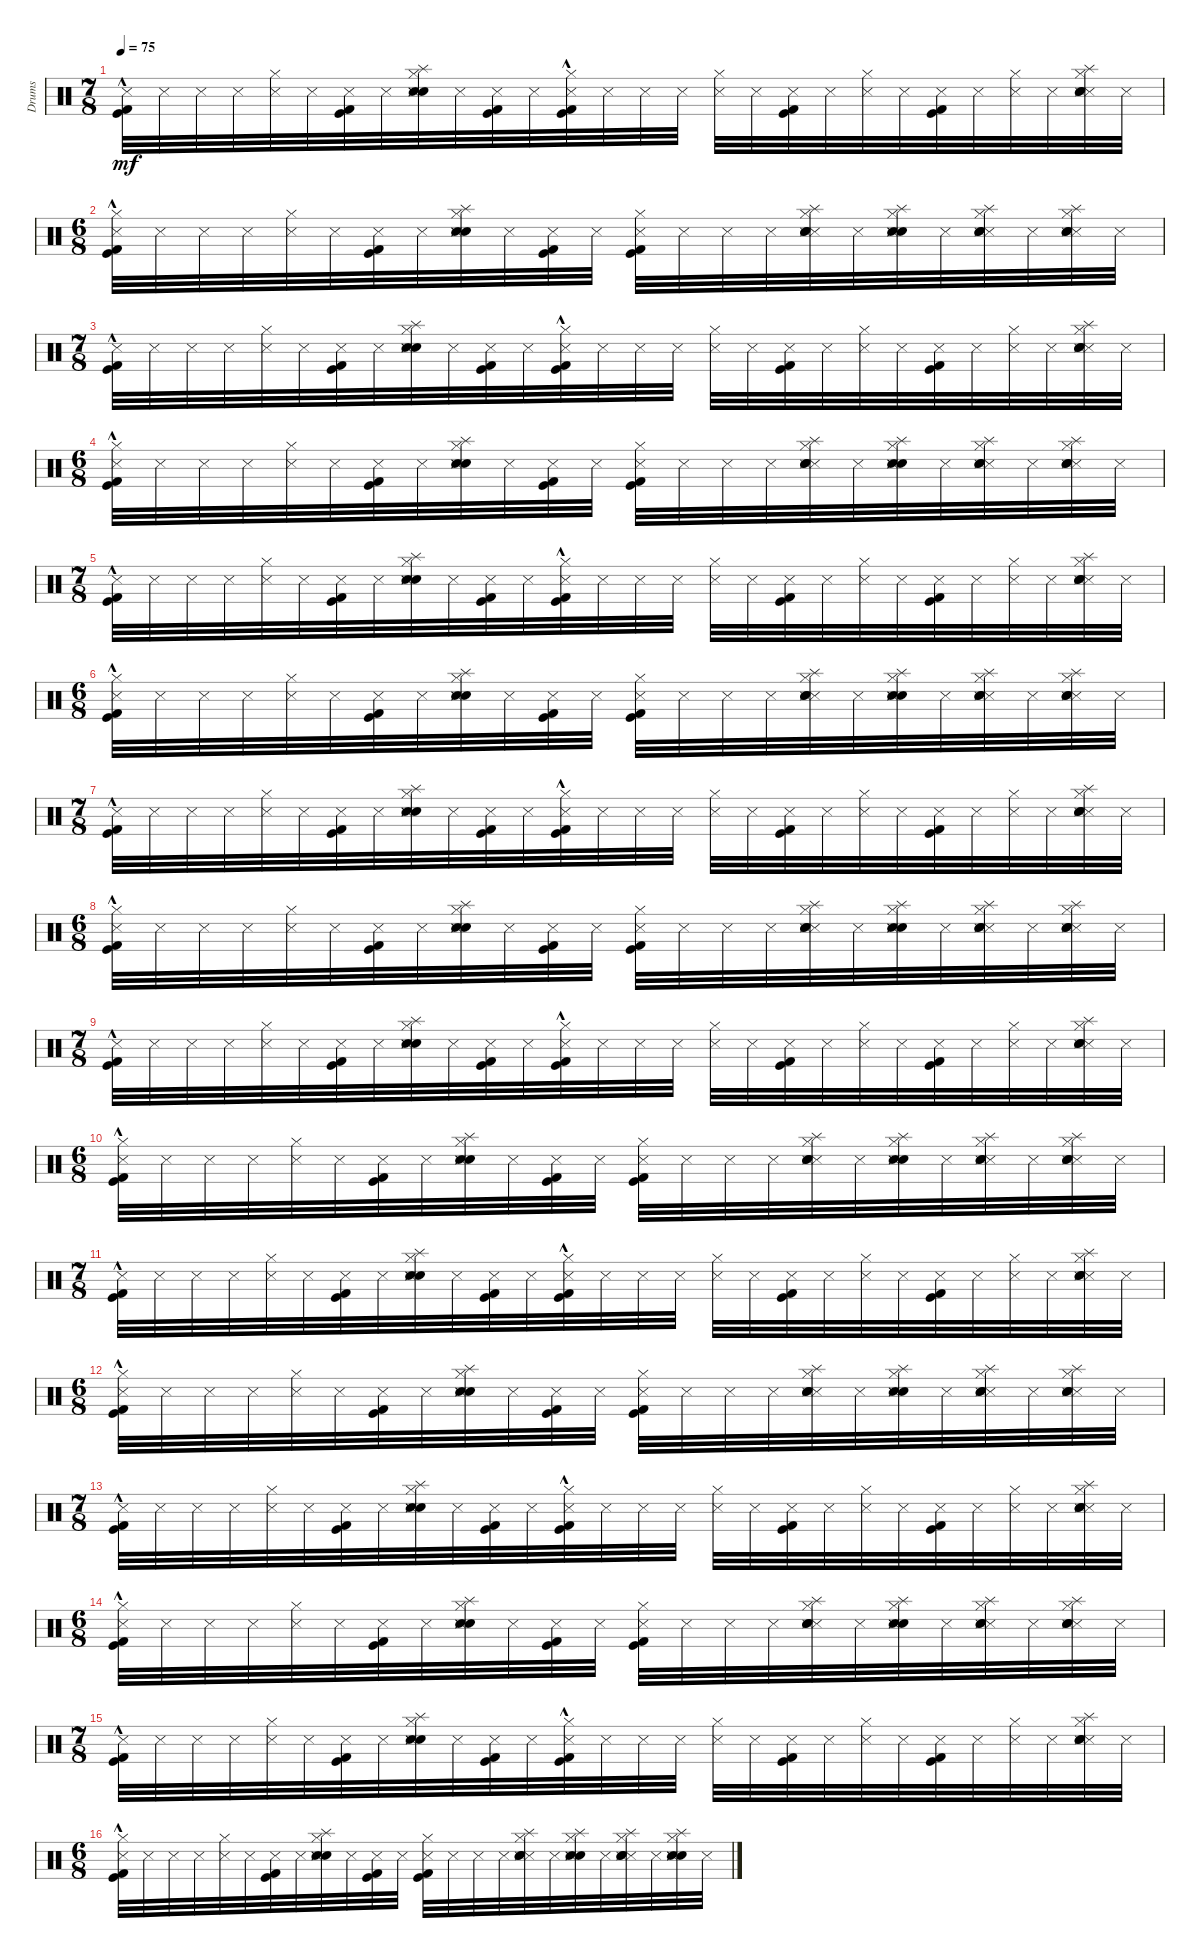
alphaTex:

\track ("Drums" "Drums") {instrument percussion}
\staff {score}
\articulation defaults
\ts (7 8)
\tempo 75
\clef neutral
\ks c
("Kick (hit)"{hac} "Kick (hit) 2"{hac} "Metronome (hit)").32{dy mf} "Metronome (hit)".32 "Metronome (hit)".32 "Metronome (hit)".32 ("Hi-Hat (closed)" "Metronome (hit)").32 "Metronome (hit)".32 ("Kick (hit)" "Kick (hit) 2" "Metronome (hit)").32 "Metronome (hit)".32 ("Hi-Hat (closed)" "Electric Snare (hit)" "Splash (hit)" "Metronome (hit)" "Snare (hit) 2" "Metronome (hit)").32 "Metronome (hit)".32 ("Kick (hit)" "Kick (hit) 2" "Metronome (hit)").32 "Metronome (hit)".32 ("Hi-Hat (closed)" "Kick (hit) 2"{hac} "Kick (hit)"{hac} "Metronome (hit)").32 "Metronome (hit)".32 "Metronome (hit)".32 "Metronome (hit)".32 ("Hi-Hat (closed)" "Metronome (hit)").32 "Metronome (hit)".32 ("Kick (hit)" "Kick (hit) 2" "Metronome (hit)").32 "Metronome (hit)".32 ("Hi-Hat (closed)" "Metronome (hit)").32 "Metronome (hit)".32 ("Kick (hit)" "Kick (hit) 2" "Metronome (hit)").32 "Metronome (hit)".32 ("Hi-Hat (closed)" "Metronome (hit)").32 "Metronome (hit)".32 ("Splash (hit)" "Hi-Hat (closed)" "Metronome (hit)" "Snare (hit) 2" "Electric Snare (hit)" "Metronome (hit)").32 "Metronome (hit)".32 |
\ts (6 8)
("Hi-Hat (closed)" "Kick (hit)"{hac} "Kick (hit) 2"{hac} "Metronome (hit)").32 "Metronome (hit)".32 "Metronome (hit)".32 "Metronome (hit)".32 ("Hi-Hat (closed)" "Metronome (hit)").32 "Metronome (hit)".32 ("Kick (hit)" "Kick (hit) 2" "Metronome (hit)").32 "Metronome (hit)".32 ("Hi-Hat (closed)" "Splash (hit)" "Snare (hit) 2" "Metronome (hit)" "Electric Snare (hit)" "Metronome (hit)").32 "Metronome (hit)".32 ("Kick (hit)" "Kick (hit) 2" "Metronome (hit)").32 "Metronome (hit)".32 ("Hi-Hat (closed)" "Kick (hit)" "Kick (hit) 2" "Metronome (hit)").32 "Metronome (hit)".32 "Metronome (hit)".32 "Metronome (hit)".32 ("Splash (hit)" "Metronome (hit)" "Electric Snare (hit)" "Hi-Hat (closed)" "Snare (hit) 2" "Metronome (hit)").32 "Metronome (hit)".32 ("Splash (hit)" "Electric Snare (hit)" "Snare (hit) 2" "Metronome (hit)" "Hi-Hat (closed)" "Metronome (hit)").32 "Metronome (hit)".32 ("Splash (hit)" "Metronome (hit)" "Snare (hit) 2" "Electric Snare (hit)" "Hi-Hat (closed)" "Metronome (hit)").32 "Metronome (hit)".32 ("Splash (hit)" "Metronome (hit)" "Snare (hit) 2" "Electric Snare (hit)" "Hi-Hat (closed)" "Metronome (hit)").32 "Metronome (hit)".32 |
\ts (7 8)
("Kick (hit)"{hac} "Kick (hit) 2"{hac} "Metronome (hit)").32 "Metronome (hit)".32 "Metronome (hit)".32 "Metronome (hit)".32 ("Hi-Hat (closed)" "Metronome (hit)").32 "Metronome (hit)".32 ("Kick (hit)" "Kick (hit) 2" "Metronome (hit)").32 "Metronome (hit)".32 ("Hi-Hat (closed)" "Electric Snare (hit)" "Splash (hit)" "Metronome (hit)" "Snare (hit) 2" "Metronome (hit)").32 "Metronome (hit)".32 ("Kick (hit)" "Kick (hit) 2" "Metronome (hit)").32 "Metronome (hit)".32 ("Hi-Hat (closed)" "Kick (hit) 2"{hac} "Kick (hit)"{hac} "Metronome (hit)").32 "Metronome (hit)".32 "Metronome (hit)".32 "Metronome (hit)".32 ("Hi-Hat (closed)" "Metronome (hit)").32 "Metronome (hit)".32 ("Kick (hit)" "Kick (hit) 2" "Metronome (hit)").32 "Metronome (hit)".32 ("Hi-Hat (closed)" "Metronome (hit)").32 "Metronome (hit)".32 ("Kick (hit)" "Kick (hit) 2" "Metronome (hit)").32 "Metronome (hit)".32 ("Hi-Hat (closed)" "Metronome (hit)").32 "Metronome (hit)".32 ("Splash (hit)" "Hi-Hat (closed)" "Metronome (hit)" "Snare (hit) 2" "Electric Snare (hit)" "Metronome (hit)").32 "Metronome (hit)".32 |
\ts (6 8)
("Hi-Hat (closed)" "Kick (hit)"{hac} "Kick (hit) 2"{hac} "Metronome (hit)").32 "Metronome (hit)".32 "Metronome (hit)".32 "Metronome (hit)".32 ("Hi-Hat (closed)" "Metronome (hit)").32 "Metronome (hit)".32 ("Kick (hit)" "Kick (hit) 2" "Metronome (hit)").32 "Metronome (hit)".32 ("Hi-Hat (closed)" "Splash (hit)" "Snare (hit) 2" "Metronome (hit)" "Electric Snare (hit)" "Metronome (hit)").32 "Metronome (hit)".32 ("Kick (hit)" "Kick (hit) 2" "Metronome (hit)").32 "Metronome (hit)".32 ("Hi-Hat (closed)" "Kick (hit)" "Kick (hit) 2" "Metronome (hit)").32 "Metronome (hit)".32 "Metronome (hit)".32 "Metronome (hit)".32 ("Splash (hit)" "Metronome (hit)" "Electric Snare (hit)" "Hi-Hat (closed)" "Snare (hit) 2" "Metronome (hit)").32 "Metronome (hit)".32 ("Splash (hit)" "Electric Snare (hit)" "Snare (hit) 2" "Metronome (hit)" "Hi-Hat (closed)" "Metronome (hit)").32 "Metronome (hit)".32 ("Splash (hit)" "Metronome (hit)" "Snare (hit) 2" "Electric Snare (hit)" "Hi-Hat (closed)" "Metronome (hit)").32 "Metronome (hit)".32 ("Splash (hit)" "Metronome (hit)" "Snare (hit) 2" "Electric Snare (hit)" "Hi-Hat (closed)" "Metronome (hit)").32 "Metronome (hit)".32 |
\ts (7 8)
("Kick (hit)"{hac} "Kick (hit) 2"{hac} "Metronome (hit)").32 "Metronome (hit)".32 "Metronome (hit)".32 "Metronome (hit)".32 ("Hi-Hat (closed)" "Metronome (hit)").32 "Metronome (hit)".32 ("Kick (hit)" "Kick (hit) 2" "Metronome (hit)").32 "Metronome (hit)".32 ("Hi-Hat (closed)" "Electric Snare (hit)" "Splash (hit)" "Metronome (hit)" "Snare (hit) 2" "Metronome (hit)").32 "Metronome (hit)".32 ("Kick (hit)" "Kick (hit) 2" "Metronome (hit)").32 "Metronome (hit)".32 ("Hi-Hat (closed)" "Kick (hit) 2"{hac} "Kick (hit)"{hac} "Metronome (hit)").32 "Metronome (hit)".32 "Metronome (hit)".32 "Metronome (hit)".32 ("Hi-Hat (closed)" "Metronome (hit)").32 "Metronome (hit)".32 ("Kick (hit)" "Kick (hit) 2" "Metronome (hit)").32 "Metronome (hit)".32 ("Hi-Hat (closed)" "Metronome (hit)").32 "Metronome (hit)".32 ("Kick (hit)" "Kick (hit) 2" "Metronome (hit)").32 "Metronome (hit)".32 ("Hi-Hat (closed)" "Metronome (hit)").32 "Metronome (hit)".32 ("Splash (hit)" "Hi-Hat (closed)" "Metronome (hit)" "Snare (hit) 2" "Electric Snare (hit)" "Metronome (hit)").32 "Metronome (hit)".32 |
\ts (6 8)
("Hi-Hat (closed)" "Kick (hit)"{hac} "Kick (hit) 2"{hac} "Metronome (hit)").32 "Metronome (hit)".32 "Metronome (hit)".32 "Metronome (hit)".32 ("Hi-Hat (closed)" "Metronome (hit)").32 "Metronome (hit)".32 ("Kick (hit)" "Kick (hit) 2" "Metronome (hit)").32 "Metronome (hit)".32 ("Hi-Hat (closed)" "Splash (hit)" "Snare (hit) 2" "Metronome (hit)" "Electric Snare (hit)" "Metronome (hit)").32 "Metronome (hit)".32 ("Kick (hit)" "Kick (hit) 2" "Metronome (hit)").32 "Metronome (hit)".32 ("Hi-Hat (closed)" "Kick (hit)" "Kick (hit) 2" "Metronome (hit)").32 "Metronome (hit)".32 "Metronome (hit)".32 "Metronome (hit)".32 ("Splash (hit)" "Metronome (hit)" "Electric Snare (hit)" "Hi-Hat (closed)" "Snare (hit) 2" "Metronome (hit)").32 "Metronome (hit)".32 ("Splash (hit)" "Electric Snare (hit)" "Snare (hit) 2" "Metronome (hit)" "Hi-Hat (closed)" "Metronome (hit)").32 "Metronome (hit)".32 ("Splash (hit)" "Metronome (hit)" "Snare (hit) 2" "Electric Snare (hit)" "Hi-Hat (closed)" "Metronome (hit)").32 "Metronome (hit)".32 ("Splash (hit)" "Metronome (hit)" "Snare (hit) 2" "Electric Snare (hit)" "Hi-Hat (closed)" "Metronome (hit)").32 "Metronome (hit)".32 |
\ts (7 8)
("Kick (hit)"{hac} "Kick (hit) 2"{hac} "Metronome (hit)").32 "Metronome (hit)".32 "Metronome (hit)".32 "Metronome (hit)".32 ("Hi-Hat (closed)" "Metronome (hit)").32 "Metronome (hit)".32 ("Kick (hit)" "Kick (hit) 2" "Metronome (hit)").32 "Metronome (hit)".32 ("Hi-Hat (closed)" "Electric Snare (hit)" "Splash (hit)" "Metronome (hit)" "Snare (hit) 2" "Metronome (hit)").32 "Metronome (hit)".32 ("Kick (hit)" "Kick (hit) 2" "Metronome (hit)").32 "Metronome (hit)".32 ("Hi-Hat (closed)" "Kick (hit) 2"{hac} "Kick (hit)"{hac} "Metronome (hit)").32 "Metronome (hit)".32 "Metronome (hit)".32 "Metronome (hit)".32 ("Hi-Hat (closed)" "Metronome (hit)").32 "Metronome (hit)".32 ("Kick (hit)" "Kick (hit) 2" "Metronome (hit)").32 "Metronome (hit)".32 ("Hi-Hat (closed)" "Metronome (hit)").32 "Metronome (hit)".32 ("Kick (hit)" "Kick (hit) 2" "Metronome (hit)").32 "Metronome (hit)".32 ("Hi-Hat (closed)" "Metronome (hit)").32 "Metronome (hit)".32 ("Splash (hit)" "Hi-Hat (closed)" "Metronome (hit)" "Snare (hit) 2" "Electric Snare (hit)" "Metronome (hit)").32 "Metronome (hit)".32 |
\ts (6 8)
("Hi-Hat (closed)" "Kick (hit)"{hac} "Kick (hit) 2"{hac} "Metronome (hit)").32 "Metronome (hit)".32 "Metronome (hit)".32 "Metronome (hit)".32 ("Hi-Hat (closed)" "Metronome (hit)").32 "Metronome (hit)".32 ("Kick (hit)" "Kick (hit) 2" "Metronome (hit)").32 "Metronome (hit)".32 ("Hi-Hat (closed)" "Splash (hit)" "Snare (hit) 2" "Metronome (hit)" "Electric Snare (hit)" "Metronome (hit)").32 "Metronome (hit)".32 ("Kick (hit)" "Kick (hit) 2" "Metronome (hit)").32 "Metronome (hit)".32 ("Hi-Hat (closed)" "Kick (hit)" "Kick (hit) 2" "Metronome (hit)").32 "Metronome (hit)".32 "Metronome (hit)".32 "Metronome (hit)".32 ("Splash (hit)" "Metronome (hit)" "Electric Snare (hit)" "Hi-Hat (closed)" "Snare (hit) 2" "Metronome (hit)").32 "Metronome (hit)".32 ("Splash (hit)" "Electric Snare (hit)" "Snare (hit) 2" "Metronome (hit)" "Hi-Hat (closed)" "Metronome (hit)").32 "Metronome (hit)".32 ("Splash (hit)" "Metronome (hit)" "Snare (hit) 2" "Electric Snare (hit)" "Hi-Hat (closed)" "Metronome (hit)").32 "Metronome (hit)".32 ("Splash (hit)" "Metronome (hit)" "Snare (hit) 2" "Electric Snare (hit)" "Hi-Hat (closed)" "Metronome (hit)").32 "Metronome (hit)".32 |
\ts (7 8)
("Kick (hit)"{hac} "Kick (hit) 2"{hac} "Metronome (hit)").32 "Metronome (hit)".32 "Metronome (hit)".32 "Metronome (hit)".32 ("Hi-Hat (closed)" "Metronome (hit)").32 "Metronome (hit)".32 ("Kick (hit)" "Kick (hit) 2" "Metronome (hit)").32 "Metronome (hit)".32 ("Hi-Hat (closed)" "Electric Snare (hit)" "Splash (hit)" "Metronome (hit)" "Snare (hit) 2" "Metronome (hit)").32 "Metronome (hit)".32 ("Kick (hit)" "Kick (hit) 2" "Metronome (hit)").32 "Metronome (hit)".32 ("Hi-Hat (closed)" "Kick (hit) 2"{hac} "Kick (hit)"{hac} "Metronome (hit)").32 "Metronome (hit)".32 "Metronome (hit)".32 "Metronome (hit)".32 ("Hi-Hat (closed)" "Metronome (hit)").32 "Metronome (hit)".32 ("Kick (hit)" "Kick (hit) 2" "Metronome (hit)").32 "Metronome (hit)".32 ("Hi-Hat (closed)" "Metronome (hit)").32 "Metronome (hit)".32 ("Kick (hit)" "Kick (hit) 2" "Metronome (hit)").32 "Metronome (hit)".32 ("Hi-Hat (closed)" "Metronome (hit)").32 "Metronome (hit)".32 ("Splash (hit)" "Hi-Hat (closed)" "Metronome (hit)" "Snare (hit) 2" "Electric Snare (hit)" "Metronome (hit)").32 "Metronome (hit)".32 |
\ts (6 8)
("Hi-Hat (closed)" "Kick (hit)"{hac} "Kick (hit) 2"{hac} "Metronome (hit)").32 "Metronome (hit)".32 "Metronome (hit)".32 "Metronome (hit)".32 ("Hi-Hat (closed)" "Metronome (hit)").32 "Metronome (hit)".32 ("Kick (hit)" "Kick (hit) 2" "Metronome (hit)").32 "Metronome (hit)".32 ("Hi-Hat (closed)" "Splash (hit)" "Snare (hit) 2" "Metronome (hit)" "Electric Snare (hit)" "Metronome (hit)").32 "Metronome (hit)".32 ("Kick (hit)" "Kick (hit) 2" "Metronome (hit)").32 "Metronome (hit)".32 ("Hi-Hat (closed)" "Kick (hit)" "Kick (hit) 2" "Metronome (hit)").32 "Metronome (hit)".32 "Metronome (hit)".32 "Metronome (hit)".32 ("Splash (hit)" "Metronome (hit)" "Electric Snare (hit)" "Hi-Hat (closed)" "Snare (hit) 2" "Metronome (hit)").32 "Metronome (hit)".32 ("Splash (hit)" "Electric Snare (hit)" "Snare (hit) 2" "Metronome (hit)" "Hi-Hat (closed)" "Metronome (hit)").32 "Metronome (hit)".32 ("Splash (hit)" "Metronome (hit)" "Snare (hit) 2" "Electric Snare (hit)" "Hi-Hat (closed)" "Metronome (hit)").32 "Metronome (hit)".32 ("Splash (hit)" "Metronome (hit)" "Snare (hit) 2" "Electric Snare (hit)" "Hi-Hat (closed)" "Metronome (hit)").32 "Metronome (hit)".32 |
\ts (7 8)
("Kick (hit)"{hac} "Kick (hit) 2"{hac} "Metronome (hit)").32 "Metronome (hit)".32 "Metronome (hit)".32 "Metronome (hit)".32 ("Hi-Hat (closed)" "Metronome (hit)").32 "Metronome (hit)".32 ("Kick (hit)" "Kick (hit) 2" "Metronome (hit)").32 "Metronome (hit)".32 ("Hi-Hat (closed)" "Electric Snare (hit)" "Splash (hit)" "Metronome (hit)" "Snare (hit) 2" "Metronome (hit)").32 "Metronome (hit)".32 ("Kick (hit)" "Kick (hit) 2" "Metronome (hit)").32 "Metronome (hit)".32 ("Hi-Hat (closed)" "Kick (hit) 2"{hac} "Kick (hit)"{hac} "Metronome (hit)").32 "Metronome (hit)".32 "Metronome (hit)".32 "Metronome (hit)".32 ("Hi-Hat (closed)" "Metronome (hit)").32 "Metronome (hit)".32 ("Kick (hit)" "Kick (hit) 2" "Metronome (hit)").32 "Metronome (hit)".32 ("Hi-Hat (closed)" "Metronome (hit)").32 "Metronome (hit)".32 ("Kick (hit)" "Kick (hit) 2" "Metronome (hit)").32 "Metronome (hit)".32 ("Hi-Hat (closed)" "Metronome (hit)").32 "Metronome (hit)".32 ("Splash (hit)" "Hi-Hat (closed)" "Metronome (hit)" "Snare (hit) 2" "Electric Snare (hit)" "Metronome (hit)").32 "Metronome (hit)".32 |
\ts (6 8)
("Hi-Hat (closed)" "Kick (hit)"{hac} "Kick (hit) 2"{hac} "Metronome (hit)").32 "Metronome (hit)".32 "Metronome (hit)".32 "Metronome (hit)".32 ("Hi-Hat (closed)" "Metronome (hit)").32 "Metronome (hit)".32 ("Kick (hit)" "Kick (hit) 2" "Metronome (hit)").32 "Metronome (hit)".32 ("Hi-Hat (closed)" "Splash (hit)" "Snare (hit) 2" "Metronome (hit)" "Electric Snare (hit)" "Metronome (hit)").32 "Metronome (hit)".32 ("Kick (hit)" "Kick (hit) 2" "Metronome (hit)").32 "Metronome (hit)".32 ("Hi-Hat (closed)" "Kick (hit)" "Kick (hit) 2" "Metronome (hit)").32 "Metronome (hit)".32 "Metronome (hit)".32 "Metronome (hit)".32 ("Splash (hit)" "Metronome (hit)" "Electric Snare (hit)" "Hi-Hat (closed)" "Snare (hit) 2" "Metronome (hit)").32 "Metronome (hit)".32 ("Splash (hit)" "Electric Snare (hit)" "Snare (hit) 2" "Metronome (hit)" "Hi-Hat (closed)" "Metronome (hit)").32 "Metronome (hit)".32 ("Splash (hit)" "Metronome (hit)" "Snare (hit) 2" "Electric Snare (hit)" "Hi-Hat (closed)" "Metronome (hit)").32 "Metronome (hit)".32 ("Splash (hit)" "Metronome (hit)" "Snare (hit) 2" "Electric Snare (hit)" "Hi-Hat (closed)" "Metronome (hit)").32 "Metronome (hit)".32 |
\ts (7 8)
("Kick (hit)"{hac} "Kick (hit) 2"{hac} "Metronome (hit)").32 "Metronome (hit)".32 "Metronome (hit)".32 "Metronome (hit)".32 ("Hi-Hat (closed)" "Metronome (hit)").32 "Metronome (hit)".32 ("Kick (hit)" "Kick (hit) 2" "Metronome (hit)").32 "Metronome (hit)".32 ("Hi-Hat (closed)" "Electric Snare (hit)" "Splash (hit)" "Metronome (hit)" "Snare (hit) 2" "Metronome (hit)").32 "Metronome (hit)".32 ("Kick (hit)" "Kick (hit) 2" "Metronome (hit)").32 "Metronome (hit)".32 ("Hi-Hat (closed)" "Kick (hit) 2"{hac} "Kick (hit)"{hac} "Metronome (hit)").32 "Metronome (hit)".32 "Metronome (hit)".32 "Metronome (hit)".32 ("Hi-Hat (closed)" "Metronome (hit)").32 "Metronome (hit)".32 ("Kick (hit)" "Kick (hit) 2" "Metronome (hit)").32 "Metronome (hit)".32 ("Hi-Hat (closed)" "Metronome (hit)").32 "Metronome (hit)".32 ("Kick (hit)" "Kick (hit) 2" "Metronome (hit)").32 "Metronome (hit)".32 ("Hi-Hat (closed)" "Metronome (hit)").32 "Metronome (hit)".32 ("Splash (hit)" "Hi-Hat (closed)" "Metronome (hit)" "Snare (hit) 2" "Electric Snare (hit)" "Metronome (hit)").32 "Metronome (hit)".32 |
\ts (6 8)
("Hi-Hat (closed)" "Kick (hit)"{hac} "Kick (hit) 2"{hac} "Metronome (hit)").32 "Metronome (hit)".32 "Metronome (hit)".32 "Metronome (hit)".32 ("Hi-Hat (closed)" "Metronome (hit)").32 "Metronome (hit)".32 ("Kick (hit)" "Kick (hit) 2" "Metronome (hit)").32 "Metronome (hit)".32 ("Hi-Hat (closed)" "Splash (hit)" "Snare (hit) 2" "Metronome (hit)" "Electric Snare (hit)" "Metronome (hit)").32 "Metronome (hit)".32 ("Kick (hit)" "Kick (hit) 2" "Metronome (hit)").32 "Metronome (hit)".32 ("Hi-Hat (closed)" "Kick (hit)" "Kick (hit) 2" "Metronome (hit)").32 "Metronome (hit)".32 "Metronome (hit)".32 "Metronome (hit)".32 ("Splash (hit)" "Metronome (hit)" "Electric Snare (hit)" "Hi-Hat (closed)" "Snare (hit) 2" "Metronome (hit)").32 "Metronome (hit)".32 ("Splash (hit)" "Electric Snare (hit)" "Snare (hit) 2" "Metronome (hit)" "Hi-Hat (closed)" "Metronome (hit)").32 "Metronome (hit)".32 ("Splash (hit)" "Metronome (hit)" "Snare (hit) 2" "Electric Snare (hit)" "Hi-Hat (closed)" "Metronome (hit)").32 "Metronome (hit)".32 ("Splash (hit)" "Metronome (hit)" "Snare (hit) 2" "Electric Snare (hit)" "Hi-Hat (closed)" "Metronome (hit)").32 "Metronome (hit)".32 |
\ts (7 8)
("Kick (hit)"{hac} "Kick (hit) 2"{hac} "Metronome (hit)").32 "Metronome (hit)".32 "Metronome (hit)".32 "Metronome (hit)".32 ("Hi-Hat (closed)" "Metronome (hit)").32 "Metronome (hit)".32 ("Kick (hit)" "Kick (hit) 2" "Metronome (hit)").32 "Metronome (hit)".32 ("Hi-Hat (closed)" "Electric Snare (hit)" "Splash (hit)" "Metronome (hit)" "Snare (hit) 2" "Metronome (hit)").32 "Metronome (hit)".32 ("Kick (hit)" "Kick (hit) 2" "Metronome (hit)").32 "Metronome (hit)".32 ("Hi-Hat (closed)" "Kick (hit) 2"{hac} "Kick (hit)"{hac} "Metronome (hit)").32 "Metronome (hit)".32 "Metronome (hit)".32 "Metronome (hit)".32 ("Hi-Hat (closed)" "Metronome (hit)").32 "Metronome (hit)".32 ("Kick (hit)" "Kick (hit) 2" "Metronome (hit)").32 "Metronome (hit)".32 ("Hi-Hat (closed)" "Metronome (hit)").32 "Metronome (hit)".32 ("Kick (hit)" "Kick (hit) 2" "Metronome (hit)").32 "Metronome (hit)".32 ("Hi-Hat (closed)" "Metronome (hit)").32 "Metronome (hit)".32 ("Splash (hit)" "Hi-Hat (closed)" "Metronome (hit)" "Snare (hit) 2" "Electric Snare (hit)" "Metronome (hit)").32 "Metronome (hit)".32 |
\ts (6 8)
("Hi-Hat (closed)" "Kick (hit)"{hac} "Kick (hit) 2"{hac} "Metronome (hit)").32 "Metronome (hit)".32 "Metronome (hit)".32 "Metronome (hit)".32 ("Hi-Hat (closed)" "Metronome (hit)").32 "Metronome (hit)".32 ("Kick (hit)" "Kick (hit) 2" "Metronome (hit)").32 "Metronome (hit)".32 ("Hi-Hat (closed)" "Splash (hit)" "Snare (hit) 2" "Metronome (hit)" "Electric Snare (hit)" "Metronome (hit)").32 "Metronome (hit)".32 ("Kick (hit)" "Kick (hit) 2" "Metronome (hit)").32 "Metronome (hit)".32 ("Hi-Hat (closed)" "Kick (hit)" "Kick (hit) 2" "Metronome (hit)").32 "Metronome (hit)".32 "Metronome (hit)".32 "Metronome (hit)".32 ("Splash (hit)" "Metronome (hit)" "Electric Snare (hit)" "Hi-Hat (closed)" "Snare (hit) 2" "Metronome (hit)").32 "Metronome (hit)".32 ("Splash (hit)" "Electric Snare (hit)" "Snare (hit) 2" "Metronome (hit)" "Hi-Hat (closed)" "Metronome (hit)").32 "Metronome (hit)".32 ("Splash (hit)" "Metronome (hit)" "Snare (hit) 2" "Electric Snare (hit)" "Hi-Hat (closed)" "Metronome (hit)").32 "Metronome (hit)".32 ("Snare (hit) 2" "Splash (hit)" "Metronome (hit)" "Electric Snare (hit)" "Hi-Hat (closed)" "Metronome (hit)").32 "Metronome (hit)".32
